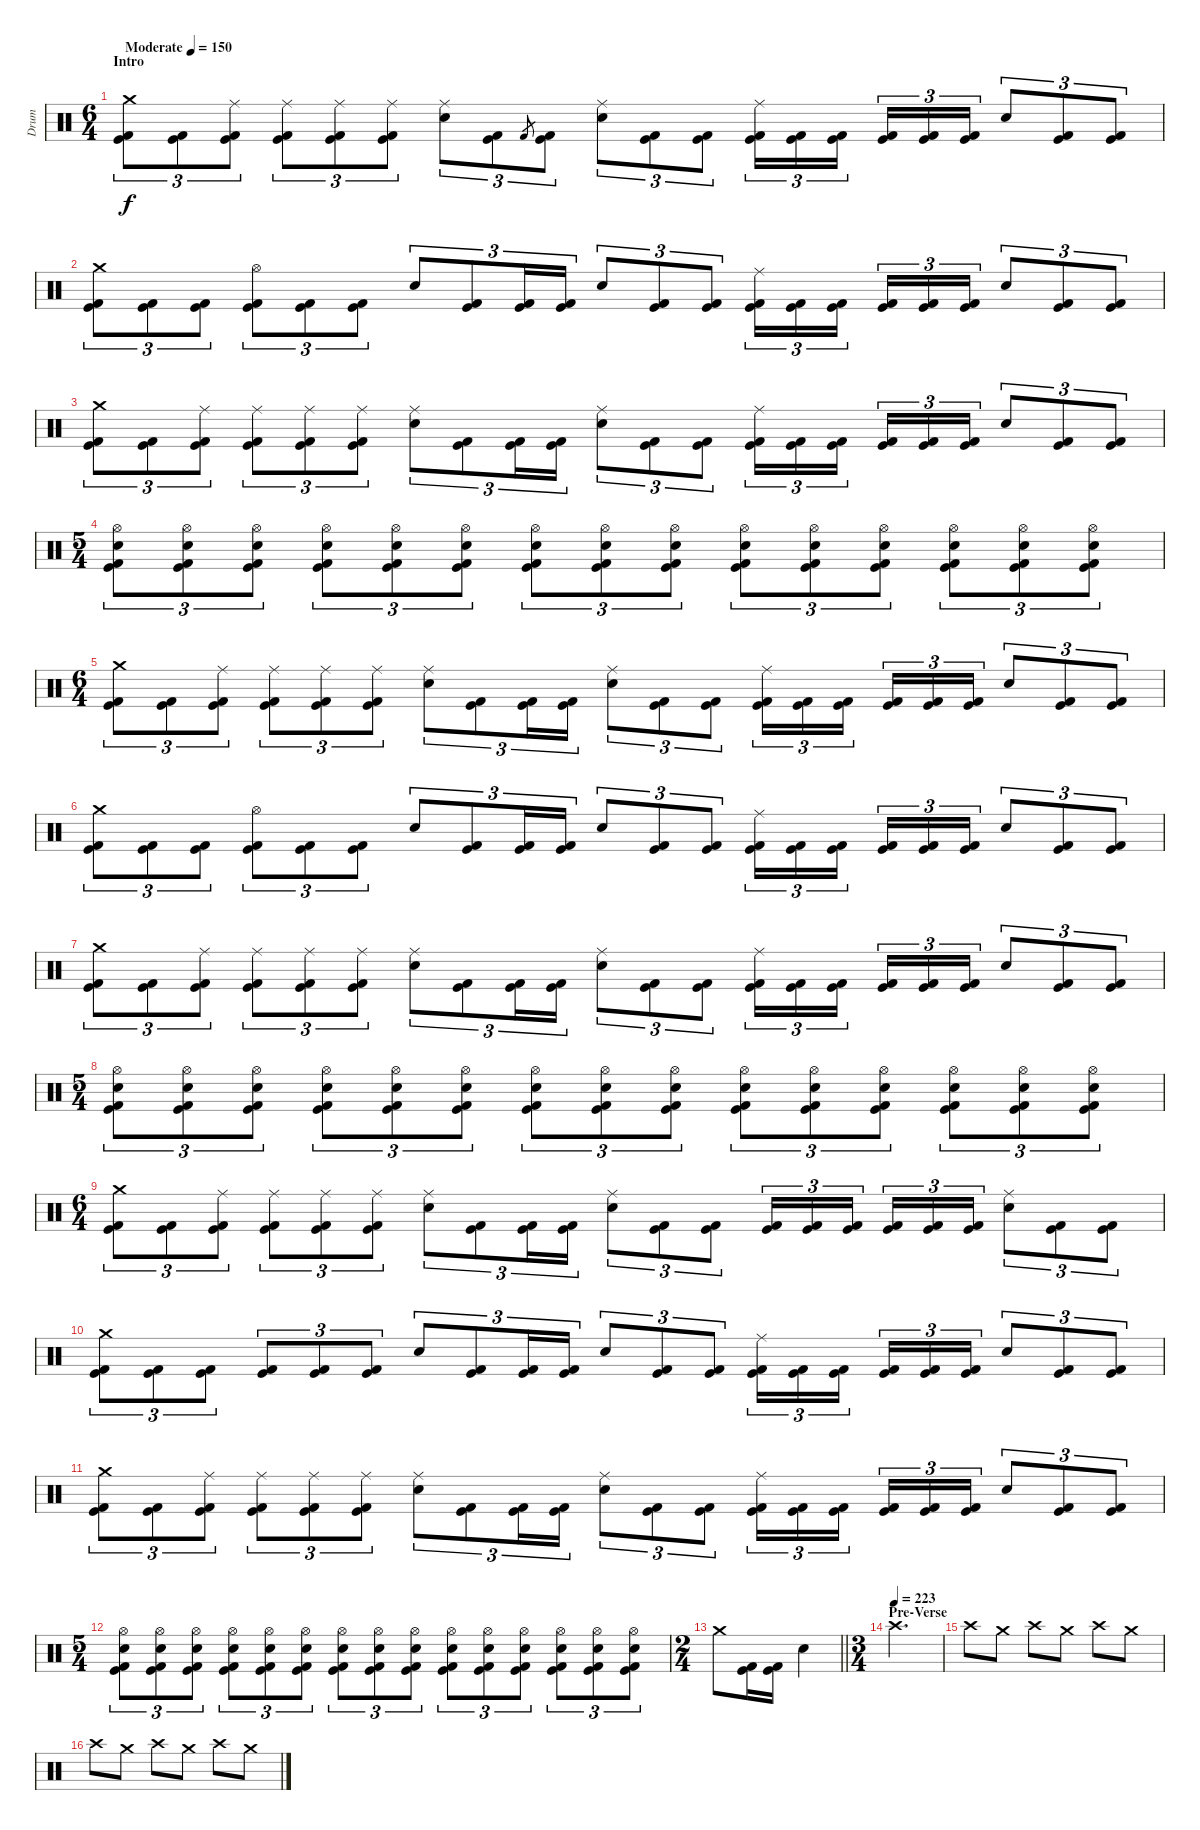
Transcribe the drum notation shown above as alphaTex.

\track ("Drum" "Drum") {instrument percussion}
\staff {score}
\articulation defaults
\ts (6 4)
\section ("" "Intro")
\tempo (150 "Moderate")
\clef neutral
\ks c
("Crash medium (hit)" "Kick (hit)" "Kick (hit) 2").8{tu (3 2) dy f} ("Kick (hit)" "Kick (hit) 2").8{tu (3 2)} ("Ride (middle)" "Kick (hit)" "Kick (hit) 2").8{tu (3 2)} ("Ride (middle)" "Kick (hit)" "Kick (hit) 2").8{tu (3 2)} ("Ride (middle)" "Kick (hit)" "Kick (hit) 2").8{tu (3 2)} ("Ride (middle)" "Kick (hit)" "Kick (hit) 2").8{tu (3 2)} ("Ride (middle)" "Electric Snare (hit)").8{tu (3 2)} ("Kick (hit)" "Kick (hit) 2").8{tu (3 2)} "Kick (hit) 2".8{gr} ("Kick (hit)" "Kick (hit) 2").8{tu (3 2)} ("Ride (middle)" "Electric Snare (hit)").8{tu (3 2)} ("Kick (hit)" "Kick (hit) 2").8{tu (3 2)} ("Kick (hit)" "Kick (hit) 2").8{tu (3 2)} ("Ride (middle)" "Kick (hit)" "Kick (hit) 2").16{tu (3 2)} ("Kick (hit)" "Kick (hit) 2").16{tu (3 2)} ("Kick (hit)" "Kick (hit) 2").16{tu (3 2) beam splitsecondary} ("Kick (hit)" "Kick (hit) 2").16{tu (3 2)} ("Kick (hit)" "Kick (hit) 2").16{tu (3 2)} ("Kick (hit)" "Kick (hit) 2").16{tu (3 2)} "Electric Snare (hit)".8{tu (3 2)} ("Kick (hit)" "Kick (hit) 2").8{tu (3 2)} ("Kick (hit)" "Kick (hit) 2").8{tu (3 2)} |
("Crash medium (hit)" "Kick (hit)" "Kick (hit) 2").8{tu (3 2)} ("Kick (hit)" "Kick (hit) 2").8{tu (3 2)} ("Kick (hit)" "Kick (hit) 2").8{tu (3 2)} ("Hi-Hat (open)" "Kick (hit)" "Kick (hit) 2").8{tu (3 2)} ("Kick (hit)" "Kick (hit) 2").8{tu (3 2)} ("Kick (hit)" "Kick (hit) 2").8{tu (3 2)} "Electric Snare (hit)".8{tu (3 2)} ("Kick (hit)" "Kick (hit) 2").8{tu (3 2)} ("Kick (hit)" "Kick (hit) 2").16{tu (3 2)} ("Kick (hit)" "Kick (hit) 2").16{tu (3 2)} "Electric Snare (hit)".8{tu (3 2)} ("Kick (hit)" "Kick (hit) 2").8{tu (3 2)} ("Kick (hit)" "Kick (hit) 2").8{tu (3 2)} ("Ride (middle)" "Kick (hit)" "Kick (hit) 2").16{tu (3 2)} ("Kick (hit)" "Kick (hit) 2").16{tu (3 2)} ("Kick (hit)" "Kick (hit) 2").16{tu (3 2) beam splitsecondary} ("Kick (hit)" "Kick (hit) 2").16{tu (3 2)} ("Kick (hit)" "Kick (hit) 2").16{tu (3 2)} ("Kick (hit)" "Kick (hit) 2").16{tu (3 2)} "Electric Snare (hit)".8{tu (3 2)} ("Kick (hit)" "Kick (hit) 2").8{tu (3 2)} ("Kick (hit)" "Kick (hit) 2").8{tu (3 2)} |
("Crash medium (hit)" "Kick (hit)" "Kick (hit) 2").8{tu (3 2)} ("Kick (hit)" "Kick (hit) 2").8{tu (3 2)} ("Ride (middle)" "Kick (hit)" "Kick (hit) 2").8{tu (3 2)} ("Ride (middle)" "Kick (hit)" "Kick (hit) 2").8{tu (3 2)} ("Ride (middle)" "Kick (hit)" "Kick (hit) 2").8{tu (3 2)} ("Ride (middle)" "Kick (hit)" "Kick (hit) 2").8{tu (3 2)} ("Ride (middle)" "Electric Snare (hit)").8{tu (3 2)} ("Kick (hit)" "Kick (hit) 2").8{tu (3 2)} ("Kick (hit)" "Kick (hit) 2").16{tu (3 2)} ("Kick (hit)" "Kick (hit) 2").16{tu (3 2)} ("Ride (middle)" "Electric Snare (hit)").8{tu (3 2)} ("Kick (hit)" "Kick (hit) 2").8{tu (3 2)} ("Kick (hit)" "Kick (hit) 2").8{tu (3 2)} ("Ride (middle)" "Kick (hit)" "Kick (hit) 2").16{tu (3 2)} ("Kick (hit)" "Kick (hit) 2").16{tu (3 2)} ("Kick (hit)" "Kick (hit) 2").16{tu (3 2) beam splitsecondary} ("Kick (hit)" "Kick (hit) 2").16{tu (3 2)} ("Kick (hit)" "Kick (hit) 2").16{tu (3 2)} ("Kick (hit)" "Kick (hit) 2").16{tu (3 2)} "Electric Snare (hit)".8{tu (3 2)} ("Kick (hit)" "Kick (hit) 2").8{tu (3 2)} ("Kick (hit)" "Kick (hit) 2").8{tu (3 2)} |
\ts (5 4)
("Hi-Hat (open)" "Electric Snare (hit)" "Kick (hit)" "Kick (hit) 2").8{tu (3 2)} ("Hi-Hat (open)" "Electric Snare (hit)" "Kick (hit)" "Kick (hit) 2").8{tu (3 2)} ("Hi-Hat (open)" "Electric Snare (hit)" "Kick (hit)" "Kick (hit) 2").8{tu (3 2)} ("Hi-Hat (open)" "Electric Snare (hit)" "Kick (hit)" "Kick (hit) 2").8{tu (3 2)} ("Hi-Hat (open)" "Electric Snare (hit)" "Kick (hit)" "Kick (hit) 2").8{tu (3 2)} ("Hi-Hat (open)" "Electric Snare (hit)" "Kick (hit)" "Kick (hit) 2").8{tu (3 2)} ("Hi-Hat (open)" "Electric Snare (hit)" "Kick (hit)" "Kick (hit) 2").8{tu (3 2)} ("Hi-Hat (open)" "Electric Snare (hit)" "Kick (hit)" "Kick (hit) 2").8{tu (3 2)} ("Hi-Hat (open)" "Electric Snare (hit)" "Kick (hit)" "Kick (hit) 2").8{tu (3 2)} ("Hi-Hat (open)" "Electric Snare (hit)" "Kick (hit)" "Kick (hit) 2").8{tu (3 2)} ("Hi-Hat (open)" "Electric Snare (hit)" "Kick (hit)" "Kick (hit) 2").8{tu (3 2)} ("Hi-Hat (open)" "Electric Snare (hit)" "Kick (hit)" "Kick (hit) 2").8{tu (3 2)} ("Hi-Hat (open)" "Electric Snare (hit)" "Kick (hit)" "Kick (hit) 2").8{tu (3 2)} ("Hi-Hat (open)" "Electric Snare (hit)" "Kick (hit)" "Kick (hit) 2").8{tu (3 2)} ("Hi-Hat (open)" "Electric Snare (hit)" "Kick (hit)" "Kick (hit) 2").8{tu (3 2)} |
\ts (6 4)
("Crash medium (hit)" "Kick (hit)" "Kick (hit) 2").8{tu (3 2)} ("Kick (hit)" "Kick (hit) 2").8{tu (3 2)} ("Ride (middle)" "Kick (hit)" "Kick (hit) 2").8{tu (3 2)} ("Ride (middle)" "Kick (hit)" "Kick (hit) 2").8{tu (3 2)} ("Ride (middle)" "Kick (hit)" "Kick (hit) 2").8{tu (3 2)} ("Ride (middle)" "Kick (hit)" "Kick (hit) 2").8{tu (3 2)} ("Ride (middle)" "Electric Snare (hit)").8{tu (3 2)} ("Kick (hit)" "Kick (hit) 2").8{tu (3 2)} ("Kick (hit)" "Kick (hit) 2").16{tu (3 2)} ("Kick (hit)" "Kick (hit) 2").16{tu (3 2)} ("Ride (middle)" "Electric Snare (hit)").8{tu (3 2)} ("Kick (hit)" "Kick (hit) 2").8{tu (3 2)} ("Kick (hit)" "Kick (hit) 2").8{tu (3 2)} ("Ride (middle)" "Kick (hit)" "Kick (hit) 2").16{tu (3 2)} ("Kick (hit)" "Kick (hit) 2").16{tu (3 2)} ("Kick (hit)" "Kick (hit) 2").16{tu (3 2) beam splitsecondary} ("Kick (hit)" "Kick (hit) 2").16{tu (3 2)} ("Kick (hit)" "Kick (hit) 2").16{tu (3 2)} ("Kick (hit)" "Kick (hit) 2").16{tu (3 2)} "Electric Snare (hit)".8{tu (3 2)} ("Kick (hit)" "Kick (hit) 2").8{tu (3 2)} ("Kick (hit)" "Kick (hit) 2").8{tu (3 2)} |
("Crash medium (hit)" "Kick (hit)" "Kick (hit) 2").8{tu (3 2)} ("Kick (hit)" "Kick (hit) 2").8{tu (3 2)} ("Kick (hit)" "Kick (hit) 2").8{tu (3 2)} ("Hi-Hat (open)" "Kick (hit)" "Kick (hit) 2").8{tu (3 2)} ("Kick (hit)" "Kick (hit) 2").8{tu (3 2)} ("Kick (hit)" "Kick (hit) 2").8{tu (3 2)} "Electric Snare (hit)".8{tu (3 2)} ("Kick (hit)" "Kick (hit) 2").8{tu (3 2)} ("Kick (hit)" "Kick (hit) 2").16{tu (3 2)} ("Kick (hit)" "Kick (hit) 2").16{tu (3 2)} "Electric Snare (hit)".8{tu (3 2)} ("Kick (hit)" "Kick (hit) 2").8{tu (3 2)} ("Kick (hit)" "Kick (hit) 2").8{tu (3 2)} ("Ride (middle)" "Kick (hit)" "Kick (hit) 2").16{tu (3 2)} ("Kick (hit)" "Kick (hit) 2").16{tu (3 2)} ("Kick (hit)" "Kick (hit) 2").16{tu (3 2) beam splitsecondary} ("Kick (hit)" "Kick (hit) 2").16{tu (3 2)} ("Kick (hit)" "Kick (hit) 2").16{tu (3 2)} ("Kick (hit)" "Kick (hit) 2").16{tu (3 2)} "Electric Snare (hit)".8{tu (3 2)} ("Kick (hit)" "Kick (hit) 2").8{tu (3 2)} ("Kick (hit)" "Kick (hit) 2").8{tu (3 2)} |
("Crash medium (hit)" "Kick (hit)" "Kick (hit) 2").8{tu (3 2)} ("Kick (hit)" "Kick (hit) 2").8{tu (3 2)} ("Ride (middle)" "Kick (hit)" "Kick (hit) 2").8{tu (3 2)} ("Ride (middle)" "Kick (hit)" "Kick (hit) 2").8{tu (3 2)} ("Ride (middle)" "Kick (hit)" "Kick (hit) 2").8{tu (3 2)} ("Ride (middle)" "Kick (hit)" "Kick (hit) 2").8{tu (3 2)} ("Ride (middle)" "Electric Snare (hit)").8{tu (3 2)} ("Kick (hit)" "Kick (hit) 2").8{tu (3 2)} ("Kick (hit)" "Kick (hit) 2").16{tu (3 2)} ("Kick (hit)" "Kick (hit) 2").16{tu (3 2)} ("Ride (middle)" "Electric Snare (hit)").8{tu (3 2)} ("Kick (hit)" "Kick (hit) 2").8{tu (3 2)} ("Kick (hit)" "Kick (hit) 2").8{tu (3 2)} ("Ride (middle)" "Kick (hit)" "Kick (hit) 2").16{tu (3 2)} ("Kick (hit)" "Kick (hit) 2").16{tu (3 2)} ("Kick (hit)" "Kick (hit) 2").16{tu (3 2) beam splitsecondary} ("Kick (hit)" "Kick (hit) 2").16{tu (3 2)} ("Kick (hit)" "Kick (hit) 2").16{tu (3 2)} ("Kick (hit)" "Kick (hit) 2").16{tu (3 2)} "Electric Snare (hit)".8{tu (3 2)} ("Kick (hit)" "Kick (hit) 2").8{tu (3 2)} ("Kick (hit)" "Kick (hit) 2").8{tu (3 2)} |
\ts (5 4)
("Hi-Hat (open)" "Electric Snare (hit)" "Kick (hit)" "Kick (hit) 2").8{tu (3 2)} ("Hi-Hat (open)" "Electric Snare (hit)" "Kick (hit)" "Kick (hit) 2").8{tu (3 2)} ("Hi-Hat (open)" "Electric Snare (hit)" "Kick (hit)" "Kick (hit) 2").8{tu (3 2)} ("Hi-Hat (open)" "Electric Snare (hit)" "Kick (hit)" "Kick (hit) 2").8{tu (3 2)} ("Hi-Hat (open)" "Electric Snare (hit)" "Kick (hit)" "Kick (hit) 2").8{tu (3 2)} ("Hi-Hat (open)" "Electric Snare (hit)" "Kick (hit)" "Kick (hit) 2").8{tu (3 2)} ("Hi-Hat (open)" "Electric Snare (hit)" "Kick (hit)" "Kick (hit) 2").8{tu (3 2)} ("Hi-Hat (open)" "Electric Snare (hit)" "Kick (hit)" "Kick (hit) 2").8{tu (3 2)} ("Hi-Hat (open)" "Electric Snare (hit)" "Kick (hit)" "Kick (hit) 2").8{tu (3 2)} ("Hi-Hat (open)" "Electric Snare (hit)" "Kick (hit)" "Kick (hit) 2").8{tu (3 2)} ("Hi-Hat (open)" "Electric Snare (hit)" "Kick (hit)" "Kick (hit) 2").8{tu (3 2)} ("Hi-Hat (open)" "Electric Snare (hit)" "Kick (hit)" "Kick (hit) 2").8{tu (3 2)} ("Hi-Hat (open)" "Electric Snare (hit)" "Kick (hit)" "Kick (hit) 2").8{tu (3 2)} ("Hi-Hat (open)" "Electric Snare (hit)" "Kick (hit)" "Kick (hit) 2").8{tu (3 2)} ("Hi-Hat (open)" "Electric Snare (hit)" "Kick (hit)" "Kick (hit) 2").8{tu (3 2)} |
\ts (6 4)
("Crash medium (hit)" "Kick (hit)" "Kick (hit) 2").8{tu (3 2)} ("Kick (hit)" "Kick (hit) 2").8{tu (3 2)} ("Ride (middle)" "Kick (hit)" "Kick (hit) 2").8{tu (3 2)} ("Ride (middle)" "Kick (hit)" "Kick (hit) 2").8{tu (3 2)} ("Ride (middle)" "Kick (hit)" "Kick (hit) 2").8{tu (3 2)} ("Ride (middle)" "Kick (hit)" "Kick (hit) 2").8{tu (3 2)} ("Ride (middle)" "Electric Snare (hit)").8{tu (3 2)} ("Kick (hit)" "Kick (hit) 2").8{tu (3 2)} ("Kick (hit)" "Kick (hit) 2").16{tu (3 2)} ("Kick (hit)" "Kick (hit) 2").16{tu (3 2)} ("Ride (middle)" "Electric Snare (hit)").8{tu (3 2)} ("Kick (hit)" "Kick (hit) 2").8{tu (3 2)} ("Kick (hit)" "Kick (hit) 2").8{tu (3 2)} ("Kick (hit)" "Kick (hit) 2").16{tu (3 2)} ("Kick (hit)" "Kick (hit) 2").16{tu (3 2)} ("Kick (hit)" "Kick (hit) 2").16{tu (3 2) beam splitsecondary} ("Kick (hit)" "Kick (hit) 2").16{tu (3 2)} ("Kick (hit)" "Kick (hit) 2").16{tu (3 2)} ("Kick (hit)" "Kick (hit) 2").16{tu (3 2)} ("Ride (middle)" "Electric Snare (hit)").8{tu (3 2)} ("Kick (hit)" "Kick (hit) 2").8{tu (3 2)} ("Kick (hit)" "Kick (hit) 2").8{tu (3 2)} |
("Crash medium (hit)" "Kick (hit)" "Kick (hit) 2").8{tu (3 2)} ("Kick (hit)" "Kick (hit) 2").8{tu (3 2)} ("Kick (hit)" "Kick (hit) 2").8{tu (3 2)} ("Kick (hit)" "Kick (hit) 2").8{tu (3 2)} ("Kick (hit)" "Kick (hit) 2").8{tu (3 2)} ("Kick (hit)" "Kick (hit) 2").8{tu (3 2)} "Electric Snare (hit)".8{tu (3 2)} ("Kick (hit)" "Kick (hit) 2").8{tu (3 2)} ("Kick (hit)" "Kick (hit) 2").16{tu (3 2)} ("Kick (hit)" "Kick (hit) 2").16{tu (3 2)} "Electric Snare (hit)".8{tu (3 2)} ("Kick (hit)" "Kick (hit) 2").8{tu (3 2)} ("Kick (hit)" "Kick (hit) 2").8{tu (3 2)} ("Ride (middle)" "Kick (hit)" "Kick (hit) 2").16{tu (3 2)} ("Kick (hit)" "Kick (hit) 2").16{tu (3 2)} ("Kick (hit)" "Kick (hit) 2").16{tu (3 2) beam splitsecondary} ("Kick (hit)" "Kick (hit) 2").16{tu (3 2)} ("Kick (hit)" "Kick (hit) 2").16{tu (3 2)} ("Kick (hit)" "Kick (hit) 2").16{tu (3 2)} "Electric Snare (hit)".8{tu (3 2)} ("Kick (hit)" "Kick (hit) 2").8{tu (3 2)} ("Kick (hit)" "Kick (hit) 2").8{tu (3 2)} |
("Crash medium (hit)" "Kick (hit)" "Kick (hit) 2").8{tu (3 2)} ("Kick (hit)" "Kick (hit) 2").8{tu (3 2)} ("Ride (middle)" "Kick (hit)" "Kick (hit) 2").8{tu (3 2)} ("Ride (middle)" "Kick (hit)" "Kick (hit) 2").8{tu (3 2)} ("Ride (middle)" "Kick (hit)" "Kick (hit) 2").8{tu (3 2)} ("Ride (middle)" "Kick (hit)" "Kick (hit) 2").8{tu (3 2)} ("Ride (middle)" "Electric Snare (hit)").8{tu (3 2)} ("Kick (hit)" "Kick (hit) 2").8{tu (3 2)} ("Kick (hit)" "Kick (hit) 2").16{tu (3 2)} ("Kick (hit)" "Kick (hit) 2").16{tu (3 2)} ("Ride (middle)" "Electric Snare (hit)").8{tu (3 2)} ("Kick (hit)" "Kick (hit) 2").8{tu (3 2)} ("Kick (hit)" "Kick (hit) 2").8{tu (3 2)} ("Ride (middle)" "Kick (hit)" "Kick (hit) 2").16{tu (3 2)} ("Kick (hit)" "Kick (hit) 2").16{tu (3 2)} ("Kick (hit)" "Kick (hit) 2").16{tu (3 2) beam splitsecondary} ("Kick (hit)" "Kick (hit) 2").16{tu (3 2)} ("Kick (hit)" "Kick (hit) 2").16{tu (3 2)} ("Kick (hit)" "Kick (hit) 2").16{tu (3 2)} "Electric Snare (hit)".8{tu (3 2)} ("Kick (hit)" "Kick (hit) 2").8{tu (3 2)} ("Kick (hit)" "Kick (hit) 2").8{tu (3 2)} |
\ts (5 4)
("Hi-Hat (open)" "Electric Snare (hit)" "Kick (hit)" "Kick (hit) 2").8{tu (3 2)} ("Hi-Hat (open)" "Electric Snare (hit)" "Kick (hit)" "Kick (hit) 2").8{tu (3 2)} ("Hi-Hat (open)" "Electric Snare (hit)" "Kick (hit)" "Kick (hit) 2").8{tu (3 2)} ("Hi-Hat (open)" "Electric Snare (hit)" "Kick (hit)" "Kick (hit) 2").8{tu (3 2)} ("Hi-Hat (open)" "Electric Snare (hit)" "Kick (hit)" "Kick (hit) 2").8{tu (3 2)} ("Hi-Hat (open)" "Electric Snare (hit)" "Kick (hit)" "Kick (hit) 2").8{tu (3 2)} ("Hi-Hat (open)" "Electric Snare (hit)" "Kick (hit)" "Kick (hit) 2").8{tu (3 2)} ("Hi-Hat (open)" "Electric Snare (hit)" "Kick (hit)" "Kick (hit) 2").8{tu (3 2)} ("Hi-Hat (open)" "Electric Snare (hit)" "Kick (hit)" "Kick (hit) 2").8{tu (3 2)} ("Hi-Hat (open)" "Electric Snare (hit)" "Kick (hit)" "Kick (hit) 2").8{tu (3 2)} ("Hi-Hat (open)" "Electric Snare (hit)" "Kick (hit)" "Kick (hit) 2").8{tu (3 2)} ("Hi-Hat (open)" "Electric Snare (hit)" "Kick (hit)" "Kick (hit) 2").8{tu (3 2)} ("Hi-Hat (open)" "Electric Snare (hit)" "Kick (hit)" "Kick (hit) 2").8{tu (3 2)} ("Hi-Hat (open)" "Electric Snare (hit)" "Kick (hit)" "Kick (hit) 2").8{tu (3 2)} ("Hi-Hat (open)" "Electric Snare (hit)" "Kick (hit)" "Kick (hit) 2").8{tu (3 2)} |
\ts (2 4)
\barLineRight lightlight "Crash medium (hit)".8
("Kick (hit)" "Kick (hit) 2").16 ("Kick (hit)" "Kick (hit) 2").16 "Electric Snare (hit)".4 |
\ts (3 4)
\section ("" "Pre-Verse")
\tempo (223)
"Crash high (hit)".2{d} |
"Crash high (hit)".8{volume 5} "Crash medium (hit)".8 "Crash high (hit)".8 "Crash medium (hit)".8 "Crash high (hit)".8 "Crash medium (hit)".8 |
"Crash high (hit)".8 "Crash medium (hit)".8 "Crash high (hit)".8 "Crash medium (hit)".8 "Crash high (hit)".8 "Crash medium (hit)".8
